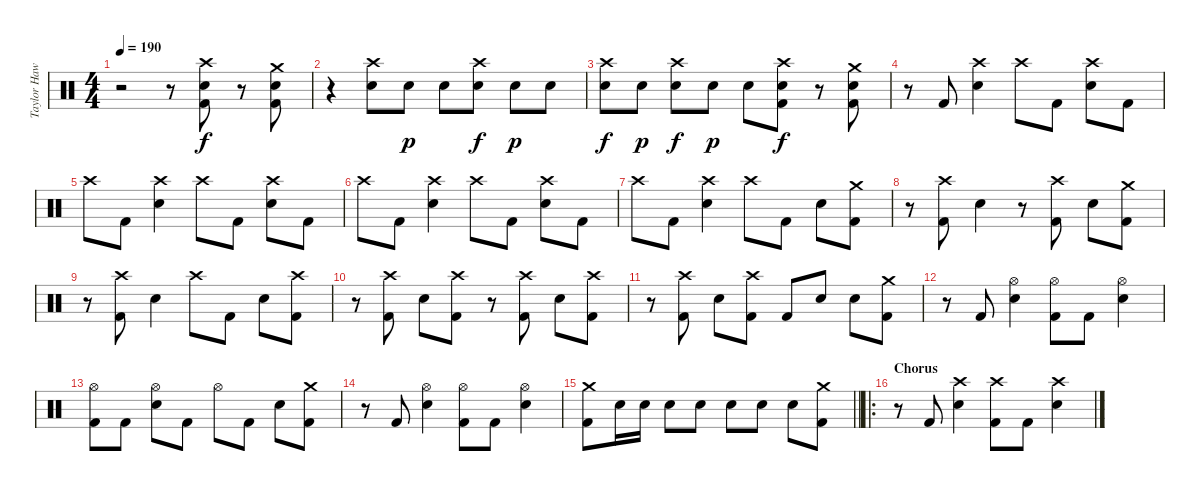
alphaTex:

\track ("Taylor Hawkins (Drums)" "Taylor Haw") {instrument percussion}
\staff {score}
\articulation defaults
\ts (4 4)
\tempo 190
\clef neutral
\ks c
r.2{dy f} r.8 ("Crash high (hit)" "Snare (hit) 2" "Kick (hit) 2").8 r.8 ("Crash medium (hit)" "Snare (hit) 2" "Kick (hit) 2").8 |
r.4 ("Crash high (hit)" "Snare (hit) 2").8 "Snare (hit) 2".8{dy p} "Snare (hit) 2".8 ("Crash high (hit)" "Snare (hit) 2").8{dy f} "Snare (hit) 2".8{dy p} "Snare (hit) 2".8 |
("Crash high (hit)" "Snare (hit) 2").8{dy f} "Snare (hit) 2".8{dy p} ("Crash high (hit)" "Snare (hit) 2").8{dy f} "Snare (hit) 2".8{dy p} "Snare (hit) 2".8 ("Crash high (hit)" "Snare (hit) 2" "Kick (hit) 2").8{dy f} r.8 ("Crash medium (hit)" "Snare (hit) 2" "Kick (hit) 2").8 |
r.8 "Kick (hit) 2".8 ("Crash high (hit)" "Snare (hit) 2").4 "Crash high (hit)".8 "Kick (hit) 2".8 ("Crash high (hit)" "Snare (hit) 2").8 "Kick (hit) 2".8 |
"Crash high (hit)".8 "Kick (hit) 2".8 ("Crash high (hit)" "Snare (hit) 2").4 "Crash high (hit)".8 "Kick (hit) 2".8 ("Crash high (hit)" "Snare (hit) 2").8 "Kick (hit) 2".8 |
"Crash high (hit)".8 "Kick (hit) 2".8 ("Crash high (hit)" "Snare (hit) 2").4 "Crash high (hit)".8 "Kick (hit) 2".8 ("Crash high (hit)" "Snare (hit) 2").8 "Kick (hit) 2".8 |
"Crash high (hit)".8 "Kick (hit) 2".8 ("Crash high (hit)" "Snare (hit) 2").4 "Crash high (hit)".8 "Kick (hit) 2".8 "Snare (hit) 2".8 ("Crash medium (hit)" "Kick (hit) 2").8 |
r.8 ("Crash high (hit)" "Kick (hit) 2").8 "Snare (hit) 2".4 r.8 ("Crash high (hit)" "Kick (hit) 2").8 "Snare (hit) 2".8 ("Crash medium (hit)" "Kick (hit) 2").8 |
r.8 ("Crash high (hit)" "Kick (hit) 2").8 "Snare (hit) 2".4 "Crash high (hit)".8 "Kick (hit) 2".8 "Snare (hit) 2".8 ("Crash high (hit)" "Kick (hit) 2").8 |
r.8 ("Crash high (hit)" "Kick (hit) 2").8 "Snare (hit) 2".8 ("Crash high (hit)" "Kick (hit) 2").8 r.8 ("Crash high (hit)" "Kick (hit) 2").8 "Snare (hit) 2".8 ("Crash high (hit)" "Kick (hit) 2").8 |
r.8 ("Crash high (hit)" "Kick (hit) 2").8 "Snare (hit) 2".8 ("Crash high (hit)" "Kick (hit) 2").8 "Kick (hit) 2".8 "Snare (hit) 2".8 "Snare (hit) 2".8 ("Crash medium (hit)" "Kick (hit) 2").8 |
r.8 "Kick (hit) 2".8 ("Hi-Hat (open)" "Snare (hit) 2").4 ("Hi-Hat (open)" "Kick (hit) 2").8 "Kick (hit) 2".8 ("Hi-Hat (open)" "Snare (hit) 2").4 |
("Hi-Hat (open)" "Kick (hit) 2").8 "Kick (hit) 2".8 ("Hi-Hat (open)" "Snare (hit) 2").8 "Kick (hit) 2".8 "Hi-Hat (open)".8 "Kick (hit) 2".8 "Snare (hit) 2".8 ("Crash medium (hit)" "Kick (hit) 2").8 |
r.8 "Kick (hit) 2".8 ("Hi-Hat (open)" "Snare (hit) 2").4 ("Hi-Hat (open)" "Kick (hit) 2").8 "Kick (hit) 2".8 ("Hi-Hat (open)" "Snare (hit) 2").4 |
\barLineRight lightlight
("Crash medium (hit)" "Kick (hit) 2").8 "Snare (hit) 2".16 "Snare (hit) 2".16 "Snare (hit) 2".8 "Snare (hit) 2".8 "Snare (hit) 2".8 "Snare (hit) 2".8 "Snare (hit) 2".8 ("Crash medium (hit)" "Kick (hit) 2").8 |
\ro
\section ("" "Chorus")
r.8 "Kick (hit) 2".8 ("Crash high (hit)" "Snare (hit) 2").4 ("Crash high (hit)" "Kick (hit) 2").8 "Kick (hit) 2".8 ("Crash high (hit)" "Snare (hit) 2").4
